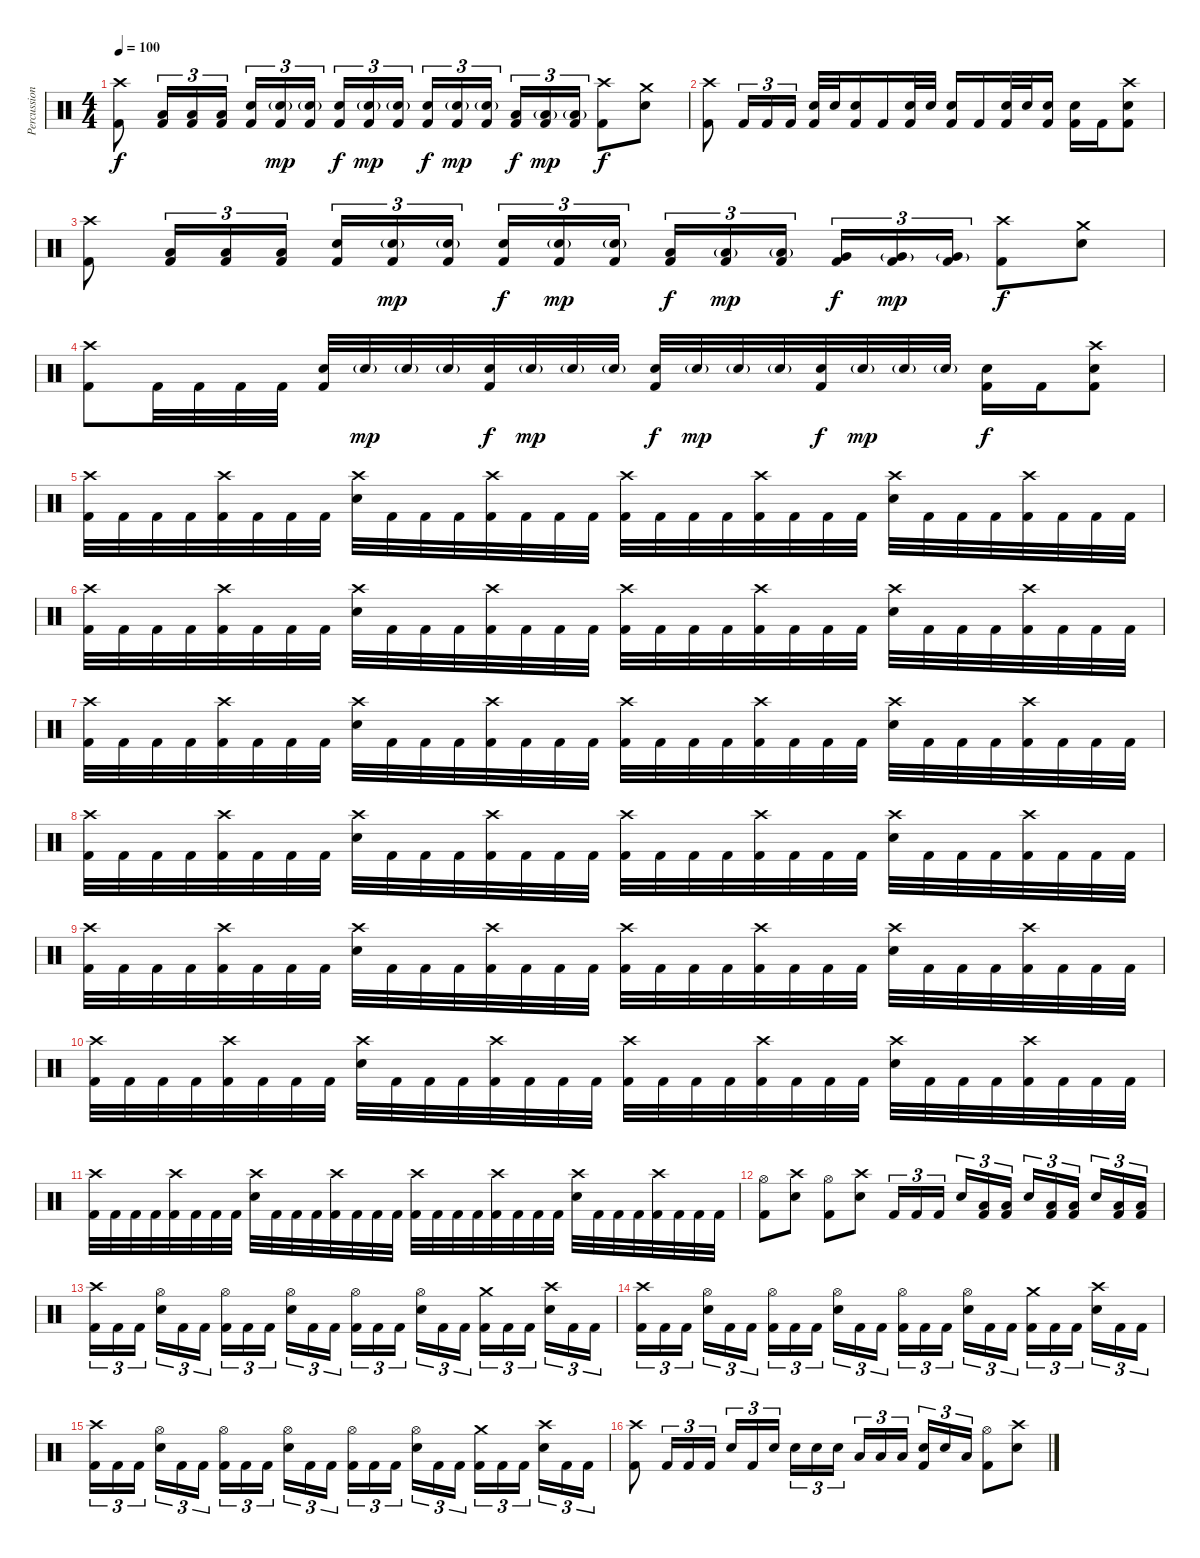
\track ("Percussion" "Percussion") {instrument percussion}
\staff {score}
\articulation defaults
\ts (4 4)
\tempo 100
\clef neutral
\ks c
("Crash high (hit)" "Kick (hit) 2").8{dy f} ("Low Tom (hit)" "Kick (hit) 2").16{tu (3 2)} ("Low Tom (hit)" "Kick (hit) 2").16{tu (3 2)} ("Low Tom (hit)" "Kick (hit) 2").16{tu (3 2)} ("Electric Snare (hit)" "Kick (hit) 2").16{tu (3 2)} ("Electric Snare (hit)"{g} "Kick (hit) 2").16{tu (3 2) dy mp} ("Electric Snare (hit)"{g} "Kick (hit) 2").16{tu (3 2)} ("Electric Snare (hit)" "Kick (hit) 2").16{tu (3 2) dy f} ("Electric Snare (hit)"{g} "Kick (hit) 2").16{tu (3 2) dy mp} ("Electric Snare (hit)"{g} "Kick (hit) 2").16{tu (3 2)} ("Electric Snare (hit)" "Kick (hit) 2").16{tu (3 2) dy f} ("Electric Snare (hit)"{g} "Kick (hit) 2").16{tu (3 2) dy mp} ("Electric Snare (hit)"{g} "Kick (hit) 2").16{tu (3 2)} ("Low Tom (hit)" "Kick (hit) 2").16{tu (3 2) dy f} ("Low Tom (hit)"{g} "Kick (hit) 2").16{tu (3 2) dy mp} ("Low Tom (hit)"{g} "Kick (hit) 2").16{tu (3 2)} ("Crash high (hit)" "Kick (hit) 2").8{dy f} ("Crash medium (hit)" "Electric Snare (hit)").8 |
("Crash high (hit)" "Kick (hit) 2").8 "Kick (hit) 2".16{tu (3 2)} "Kick (hit) 2".16{tu (3 2)} "Kick (hit) 2".16{tu (3 2)} ("Electric Snare (hit)" "Kick (hit) 2").32 "Electric Snare (hit)".32 ("Electric Snare (hit)" "Kick (hit) 2").16 "Kick (hit) 2".16 ("Electric Snare (hit)" "Kick (hit) 2").32 "Electric Snare (hit)".32 ("Electric Snare (hit)" "Kick (hit) 2").16 "Kick (hit) 2".16 ("Electric Snare (hit)" "Kick (hit) 2").32 "Electric Snare (hit)".32 ("Electric Snare (hit)" "Kick (hit) 2").16 ("Electric Snare (hit)" "Kick (hit) 2").16 "Kick (hit) 2".16 ("Crash high (hit)" "Electric Snare (hit)" "Kick (hit) 2").8 |
("Crash high (hit)" "Kick (hit) 2").8 ("Low Tom (hit)" "Kick (hit) 2").16{tu (3 2)} ("Low Tom (hit)" "Kick (hit) 2").16{tu (3 2)} ("Low Tom (hit)" "Kick (hit) 2").16{tu (3 2)} ("Electric Snare (hit)" "Kick (hit) 2").16{tu (3 2)} ("Electric Snare (hit)"{g} "Kick (hit) 2").16{tu (3 2) dy mp} ("Electric Snare (hit)"{g} "Kick (hit) 2").16{tu (3 2)} ("Electric Snare (hit)" "Kick (hit) 2").16{tu (3 2) dy f} ("Electric Snare (hit)"{g} "Kick (hit) 2").16{tu (3 2) dy mp} ("Electric Snare (hit)"{g} "Kick (hit) 2").16{tu (3 2)} ("Low Tom (hit)" "Kick (hit) 2").16{tu (3 2) dy f} ("Low Tom (hit)"{g} "Kick (hit) 2").16{tu (3 2) dy mp} ("Low Tom (hit)"{g} "Kick (hit) 2").16{tu (3 2)} ("Very Low Tom (hit)" "Kick (hit) 2").16{tu (3 2) dy f} ("Very Low Tom (hit)"{g} "Kick (hit) 2").16{tu (3 2) dy mp} ("Very Low Tom (hit)"{g} "Kick (hit) 2").16{tu (3 2)} ("Crash high (hit)" "Kick (hit) 2").8{dy f} ("Crash medium (hit)" "Electric Snare (hit)").8 |
("Crash high (hit)" "Kick (hit) 2").8 "Kick (hit) 2".32 "Kick (hit) 2".32 "Kick (hit) 2".32 "Kick (hit) 2".32 ("Electric Snare (hit)" "Kick (hit) 2").32 "Electric Snare (hit)"{g}.32{dy mp} "Electric Snare (hit)"{g}.32 "Electric Snare (hit)"{g}.32 ("Electric Snare (hit)" "Kick (hit) 2").32{dy f} "Electric Snare (hit)"{g}.32{dy mp} "Electric Snare (hit)"{g}.32 "Electric Snare (hit)"{g}.32 ("Electric Snare (hit)" "Kick (hit) 2").32{dy f} "Electric Snare (hit)"{g}.32{dy mp} "Electric Snare (hit)"{g}.32 "Electric Snare (hit)"{g}.32 ("Electric Snare (hit)" "Kick (hit) 2").32{dy f} "Electric Snare (hit)"{g}.32{dy mp} "Electric Snare (hit)"{g}.32 "Electric Snare (hit)"{g}.32 ("Electric Snare (hit)" "Kick (hit) 2").16{dy f} "Kick (hit) 2".16 ("Crash high (hit)" "Electric Snare (hit)" "Kick (hit) 2").8 |
("Crash high (hit)" "Kick (hit) 2").32 "Kick (hit) 2".32 "Kick (hit) 2".32 "Kick (hit) 2".32 ("Crash high (hit)" "Kick (hit) 2").32 "Kick (hit) 2".32 "Kick (hit) 2".32 "Kick (hit) 2".32 ("Crash high (hit)" "Electric Snare (hit)").32 "Kick (hit) 2".32 "Kick (hit) 2".32 "Kick (hit) 2".32 ("Crash high (hit)" "Kick (hit) 2").32 "Kick (hit) 2".32 "Kick (hit) 2".32 "Kick (hit) 2".32 ("Crash high (hit)" "Kick (hit) 2").32 "Kick (hit) 2".32 "Kick (hit) 2".32 "Kick (hit) 2".32 ("Crash high (hit)" "Kick (hit) 2").32 "Kick (hit) 2".32 "Kick (hit) 2".32 "Kick (hit) 2".32 ("Crash high (hit)" "Electric Snare (hit)").32 "Kick (hit) 2".32 "Kick (hit) 2".32 "Kick (hit) 2".32 ("Crash high (hit)" "Kick (hit) 2").32 "Kick (hit) 2".32 "Kick (hit) 2".32 "Kick (hit) 2".32 |
("Crash high (hit)" "Kick (hit) 2").32 "Kick (hit) 2".32 "Kick (hit) 2".32 "Kick (hit) 2".32 ("Crash high (hit)" "Kick (hit) 2").32 "Kick (hit) 2".32 "Kick (hit) 2".32 "Kick (hit) 2".32 ("Crash high (hit)" "Electric Snare (hit)").32 "Kick (hit) 2".32 "Kick (hit) 2".32 "Kick (hit) 2".32 ("Crash high (hit)" "Kick (hit) 2").32 "Kick (hit) 2".32 "Kick (hit) 2".32 "Kick (hit) 2".32 ("Crash high (hit)" "Kick (hit) 2").32 "Kick (hit) 2".32 "Kick (hit) 2".32 "Kick (hit) 2".32 ("Crash high (hit)" "Kick (hit) 2").32 "Kick (hit) 2".32 "Kick (hit) 2".32 "Kick (hit) 2".32 ("Crash high (hit)" "Electric Snare (hit)").32 "Kick (hit) 2".32 "Kick (hit) 2".32 "Kick (hit) 2".32 ("Crash high (hit)" "Kick (hit) 2").32 "Kick (hit) 2".32 "Kick (hit) 2".32 "Kick (hit) 2".32 |
("Crash high (hit)" "Kick (hit) 2").32 "Kick (hit) 2".32 "Kick (hit) 2".32 "Kick (hit) 2".32 ("Crash high (hit)" "Kick (hit) 2").32 "Kick (hit) 2".32 "Kick (hit) 2".32 "Kick (hit) 2".32 ("Crash high (hit)" "Electric Snare (hit)").32 "Kick (hit) 2".32 "Kick (hit) 2".32 "Kick (hit) 2".32 ("Crash high (hit)" "Kick (hit) 2").32 "Kick (hit) 2".32 "Kick (hit) 2".32 "Kick (hit) 2".32 ("Crash high (hit)" "Kick (hit) 2").32 "Kick (hit) 2".32 "Kick (hit) 2".32 "Kick (hit) 2".32 ("Crash high (hit)" "Kick (hit) 2").32 "Kick (hit) 2".32 "Kick (hit) 2".32 "Kick (hit) 2".32 ("Crash high (hit)" "Electric Snare (hit)").32 "Kick (hit) 2".32 "Kick (hit) 2".32 "Kick (hit) 2".32 ("Crash high (hit)" "Kick (hit) 2").32 "Kick (hit) 2".32 "Kick (hit) 2".32 "Kick (hit) 2".32 |
("Crash high (hit)" "Kick (hit) 2").32 "Kick (hit) 2".32 "Kick (hit) 2".32 "Kick (hit) 2".32 ("Crash high (hit)" "Kick (hit) 2").32 "Kick (hit) 2".32 "Kick (hit) 2".32 "Kick (hit) 2".32 ("Crash high (hit)" "Electric Snare (hit)").32 "Kick (hit) 2".32 "Kick (hit) 2".32 "Kick (hit) 2".32 ("Crash high (hit)" "Kick (hit) 2").32 "Kick (hit) 2".32 "Kick (hit) 2".32 "Kick (hit) 2".32 ("Crash high (hit)" "Kick (hit) 2").32 "Kick (hit) 2".32 "Kick (hit) 2".32 "Kick (hit) 2".32 ("Crash high (hit)" "Kick (hit) 2").32 "Kick (hit) 2".32 "Kick (hit) 2".32 "Kick (hit) 2".32 ("Crash high (hit)" "Electric Snare (hit)").32 "Kick (hit) 2".32 "Kick (hit) 2".32 "Kick (hit) 2".32 ("Crash high (hit)" "Kick (hit) 2").32 "Kick (hit) 2".32 "Kick (hit) 2".32 "Kick (hit) 2".32 |
("Crash high (hit)" "Kick (hit) 2").32 "Kick (hit) 2".32 "Kick (hit) 2".32 "Kick (hit) 2".32 ("Crash high (hit)" "Kick (hit) 2").32 "Kick (hit) 2".32 "Kick (hit) 2".32 "Kick (hit) 2".32 ("Crash high (hit)" "Electric Snare (hit)").32 "Kick (hit) 2".32 "Kick (hit) 2".32 "Kick (hit) 2".32 ("Crash high (hit)" "Kick (hit) 2").32 "Kick (hit) 2".32 "Kick (hit) 2".32 "Kick (hit) 2".32 ("Crash high (hit)" "Kick (hit) 2").32 "Kick (hit) 2".32 "Kick (hit) 2".32 "Kick (hit) 2".32 ("Crash high (hit)" "Kick (hit) 2").32 "Kick (hit) 2".32 "Kick (hit) 2".32 "Kick (hit) 2".32 ("Crash high (hit)" "Electric Snare (hit)").32 "Kick (hit) 2".32 "Kick (hit) 2".32 "Kick (hit) 2".32 ("Crash high (hit)" "Kick (hit) 2").32 "Kick (hit) 2".32 "Kick (hit) 2".32 "Kick (hit) 2".32 |
("Crash high (hit)" "Kick (hit) 2").32 "Kick (hit) 2".32 "Kick (hit) 2".32 "Kick (hit) 2".32 ("Crash high (hit)" "Kick (hit) 2").32 "Kick (hit) 2".32 "Kick (hit) 2".32 "Kick (hit) 2".32 ("Crash high (hit)" "Electric Snare (hit)").32 "Kick (hit) 2".32 "Kick (hit) 2".32 "Kick (hit) 2".32 ("Crash high (hit)" "Kick (hit) 2").32 "Kick (hit) 2".32 "Kick (hit) 2".32 "Kick (hit) 2".32 ("Crash high (hit)" "Kick (hit) 2").32 "Kick (hit) 2".32 "Kick (hit) 2".32 "Kick (hit) 2".32 ("Crash high (hit)" "Kick (hit) 2").32 "Kick (hit) 2".32 "Kick (hit) 2".32 "Kick (hit) 2".32 ("Crash high (hit)" "Electric Snare (hit)").32 "Kick (hit) 2".32 "Kick (hit) 2".32 "Kick (hit) 2".32 ("Crash high (hit)" "Kick (hit) 2").32 "Kick (hit) 2".32 "Kick (hit) 2".32 "Kick (hit) 2".32 |
("Crash high (hit)" "Kick (hit) 2").32 "Kick (hit) 2".32 "Kick (hit) 2".32 "Kick (hit) 2".32 ("Crash high (hit)" "Kick (hit) 2").32 "Kick (hit) 2".32 "Kick (hit) 2".32 "Kick (hit) 2".32 ("Crash high (hit)" "Electric Snare (hit)").32 "Kick (hit) 2".32 "Kick (hit) 2".32 "Kick (hit) 2".32 ("Crash high (hit)" "Kick (hit) 2").32 "Kick (hit) 2".32 "Kick (hit) 2".32 "Kick (hit) 2".32 ("Crash high (hit)" "Kick (hit) 2").32 "Kick (hit) 2".32 "Kick (hit) 2".32 "Kick (hit) 2".32 ("Crash high (hit)" "Kick (hit) 2").32 "Kick (hit) 2".32 "Kick (hit) 2".32 "Kick (hit) 2".32 ("Crash high (hit)" "Electric Snare (hit)").32 "Kick (hit) 2".32 "Kick (hit) 2".32 "Kick (hit) 2".32 ("Crash high (hit)" "Kick (hit) 2").32 "Kick (hit) 2".32 "Kick (hit) 2".32 "Kick (hit) 2".32 |
("Hi-Hat (open)" "Kick (hit) 2").8 ("Crash high (hit)" "Electric Snare (hit)").8 ("Hi-Hat (open)" "Kick (hit) 2").8 ("Crash high (hit)" "Electric Snare (hit)").8 "Kick (hit) 2".16{tu (3 2)} "Kick (hit) 2".16{tu (3 2)} "Kick (hit) 2".16{tu (3 2)} "Electric Snare (hit)".16{tu (3 2)} ("Low Tom (hit)" "Kick (hit) 2").16{tu (3 2)} ("Low Tom (hit)" "Kick (hit) 2").16{tu (3 2)} "Electric Snare (hit)".16{tu (3 2)} ("Low Tom (hit)" "Kick (hit) 2").16{tu (3 2)} ("Low Tom (hit)" "Kick (hit) 2").16{tu (3 2)} "Electric Snare (hit)".16{tu (3 2)} ("Low Tom (hit)" "Kick (hit) 2").16{tu (3 2)} ("Low Tom (hit)" "Kick (hit) 2").16{tu (3 2)} |
("Crash high (hit)" "Kick (hit) 2").16{tu (3 2)} "Kick (hit) 2".16{tu (3 2)} "Kick (hit) 2".16{tu (3 2)} ("Hi-Hat (open)" "Electric Snare (hit)").16{tu (3 2)} "Kick (hit) 2".16{tu (3 2)} "Kick (hit) 2".16{tu (3 2)} ("Hi-Hat (open)" "Kick (hit) 2").16{tu (3 2)} "Kick (hit) 2".16{tu (3 2)} "Kick (hit) 2".16{tu (3 2)} ("Hi-Hat (open)" "Electric Snare (hit)").16{tu (3 2)} "Kick (hit) 2".16{tu (3 2)} "Kick (hit) 2".16{tu (3 2)} ("Hi-Hat (open)" "Kick (hit) 2").16{tu (3 2)} "Kick (hit) 2".16{tu (3 2)} "Kick (hit) 2".16{tu (3 2)} ("Hi-Hat (open)" "Electric Snare (hit)").16{tu (3 2)} "Kick (hit) 2".16{tu (3 2)} "Kick (hit) 2".16{tu (3 2)} ("Crash medium (hit)" "Kick (hit) 2").16{tu (3 2)} "Kick (hit) 2".16{tu (3 2)} "Kick (hit) 2".16{tu (3 2)} ("Crash high (hit)" "Electric Snare (hit)").16{tu (3 2)} "Kick (hit) 2".16{tu (3 2)} "Kick (hit) 2".16{tu (3 2)} |
("Crash high (hit)" "Kick (hit) 2").16{tu (3 2)} "Kick (hit) 2".16{tu (3 2)} "Kick (hit) 2".16{tu (3 2)} ("Hi-Hat (open)" "Electric Snare (hit)").16{tu (3 2)} "Kick (hit) 2".16{tu (3 2)} "Kick (hit) 2".16{tu (3 2)} ("Hi-Hat (open)" "Kick (hit) 2").16{tu (3 2)} "Kick (hit) 2".16{tu (3 2)} "Kick (hit) 2".16{tu (3 2)} ("Hi-Hat (open)" "Electric Snare (hit)").16{tu (3 2)} "Kick (hit) 2".16{tu (3 2)} "Kick (hit) 2".16{tu (3 2)} ("Hi-Hat (open)" "Kick (hit) 2").16{tu (3 2)} "Kick (hit) 2".16{tu (3 2)} "Kick (hit) 2".16{tu (3 2)} ("Hi-Hat (open)" "Electric Snare (hit)").16{tu (3 2)} "Kick (hit) 2".16{tu (3 2)} "Kick (hit) 2".16{tu (3 2)} ("Crash medium (hit)" "Kick (hit) 2").16{tu (3 2)} "Kick (hit) 2".16{tu (3 2)} "Kick (hit) 2".16{tu (3 2)} ("Crash high (hit)" "Electric Snare (hit)").16{tu (3 2)} "Kick (hit) 2".16{tu (3 2)} "Kick (hit) 2".16{tu (3 2)} |
("Crash high (hit)" "Kick (hit) 2").16{tu (3 2)} "Kick (hit) 2".16{tu (3 2)} "Kick (hit) 2".16{tu (3 2)} ("Hi-Hat (open)" "Electric Snare (hit)").16{tu (3 2)} "Kick (hit) 2".16{tu (3 2)} "Kick (hit) 2".16{tu (3 2)} ("Hi-Hat (open)" "Kick (hit) 2").16{tu (3 2)} "Kick (hit) 2".16{tu (3 2)} "Kick (hit) 2".16{tu (3 2)} ("Hi-Hat (open)" "Electric Snare (hit)").16{tu (3 2)} "Kick (hit) 2".16{tu (3 2)} "Kick (hit) 2".16{tu (3 2)} ("Hi-Hat (open)" "Kick (hit) 2").16{tu (3 2)} "Kick (hit) 2".16{tu (3 2)} "Kick (hit) 2".16{tu (3 2)} ("Hi-Hat (open)" "Electric Snare (hit)").16{tu (3 2)} "Kick (hit) 2".16{tu (3 2)} "Kick (hit) 2".16{tu (3 2)} ("Crash medium (hit)" "Kick (hit) 2").16{tu (3 2)} "Kick (hit) 2".16{tu (3 2)} "Kick (hit) 2".16{tu (3 2)} ("Crash high (hit)" "Electric Snare (hit)").16{tu (3 2)} "Kick (hit) 2".16{tu (3 2)} "Kick (hit) 2".16{tu (3 2)} |
("Crash high (hit)" "Kick (hit) 2").8 "Kick (hit) 2".16{tu (3 2)} "Kick (hit) 2".16{tu (3 2)} "Kick (hit) 2".16{tu (3 2)} "Electric Snare (hit)".16{tu (3 2)} "Kick (hit) 2".16{tu (3 2)} "Electric Snare (hit)".16{tu (3 2)} "Electric Snare (hit)".16{tu (3 2)} "Electric Snare (hit)".16{tu (3 2)} "Electric Snare (hit)".16{tu (3 2)} "Low Tom (hit)".16{tu (3 2)} "Low Tom (hit)".16{tu (3 2)} "Low Tom (hit)".16{tu (3 2)} ("Electric Snare (hit)" "Kick (hit) 2").16{tu (3 2)} "Electric Snare (hit)".16{tu (3 2)} "Low Tom (hit)".16{tu (3 2)} ("Hi-Hat (open)" "Kick (hit) 2").8 ("Crash high (hit)" "Electric Snare (hit)").8
